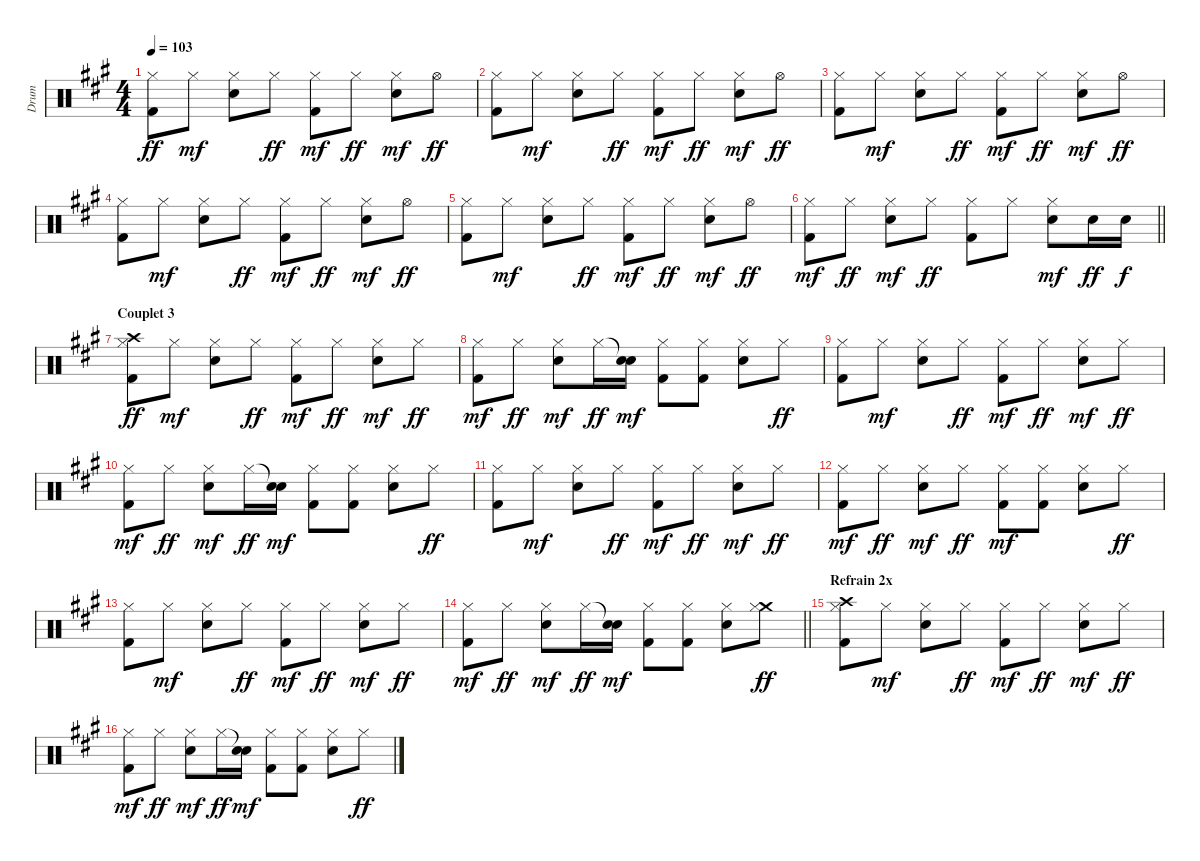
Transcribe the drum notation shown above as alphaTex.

\track ("Drum" "Drum") {instrument percussion}
\staff {score}
\articulation defaults
\ts (4 4)
\tempo 103
\clef neutral
\ks a
("Hi-Hat (closed)" "Kick (hit) 2").8{dy ff} "Hi-Hat (closed)".8{dy mf} ("Hi-Hat (closed)" "Electric Snare (hit)").8 "Hi-Hat (closed)".8{dy ff} ("Hi-Hat (closed)" "Kick (hit) 2").8{dy mf} "Hi-Hat (closed)".8{dy ff} ("Hi-Hat (closed)" "Electric Snare (hit)").8{dy mf} "Hi-Hat (open)".8{dy ff} |
("Hi-Hat (closed)" "Kick (hit) 2").8 "Hi-Hat (closed)".8{dy mf} ("Hi-Hat (closed)" "Electric Snare (hit)").8 "Hi-Hat (closed)".8{dy ff} ("Hi-Hat (closed)" "Kick (hit) 2").8{dy mf} "Hi-Hat (closed)".8{dy ff} ("Hi-Hat (closed)" "Electric Snare (hit)").8{dy mf} "Hi-Hat (open)".8{dy ff} |
("Hi-Hat (closed)" "Kick (hit) 2").8 "Hi-Hat (closed)".8{dy mf} ("Hi-Hat (closed)" "Electric Snare (hit)").8 "Hi-Hat (closed)".8{dy ff} ("Hi-Hat (closed)" "Kick (hit) 2").8{dy mf} "Hi-Hat (closed)".8{dy ff} ("Hi-Hat (closed)" "Electric Snare (hit)").8{dy mf} "Hi-Hat (open)".8{dy ff} |
("Hi-Hat (closed)" "Kick (hit) 2").8 "Hi-Hat (closed)".8{dy mf} ("Hi-Hat (closed)" "Electric Snare (hit)").8 "Hi-Hat (closed)".8{dy ff} ("Hi-Hat (closed)" "Kick (hit) 2").8{dy mf} "Hi-Hat (closed)".8{dy ff} ("Hi-Hat (closed)" "Electric Snare (hit)").8{dy mf} "Hi-Hat (open)".8{dy ff} |
("Hi-Hat (closed)" "Kick (hit) 2").8 "Hi-Hat (closed)".8{dy mf} ("Hi-Hat (closed)" "Electric Snare (hit)").8 "Hi-Hat (closed)".8{dy ff} ("Hi-Hat (closed)" "Kick (hit) 2").8{dy mf} "Hi-Hat (closed)".8{dy ff} ("Hi-Hat (closed)" "Electric Snare (hit)").8{dy mf} "Hi-Hat (open)".8{dy ff} |
\barLineRight lightlight
("Hi-Hat (closed)" "Kick (hit) 2").8{dy mf} "Hi-Hat (closed)".8{dy ff} ("Hi-Hat (closed)" "Electric Snare (hit)").8{dy mf} "Hi-Hat (closed)".8{dy ff} ("Hi-Hat (closed)" "Kick (hit) 2").8 "Hi-Hat (closed)".8 ("Hi-Hat (closed)" "Electric Snare (hit)").8{dy mf} "Snare (hit) 2".16{dy ff} "Snare (hit) 2".16{dy f} |
\section ("" "Couplet 3")
("Crash high (hit)" "Hi-Hat (closed)" "Kick (hit) 2").8{dy ff} "Hi-Hat (closed)".8{dy mf} ("Hi-Hat (closed)" "Electric Snare (hit)").8 "Hi-Hat (closed)".8{dy ff} ("Hi-Hat (closed)" "Kick (hit) 2").8{dy mf} "Hi-Hat (closed)".8{dy ff} ("Hi-Hat (closed)" "Electric Snare (hit)").8{dy mf} "Hi-Hat (closed)".8{dy ff} |
("Hi-Hat (closed)" "Kick (hit) 2").8{dy mf} "Hi-Hat (closed)".8{dy ff} ("Hi-Hat (closed)" "Electric Snare (hit)").8{dy mf} "Hi-Hat (closed)".16{dy ff} ("Snare (hit)"{t} "Electric Snare (hit)").16{dy mf} ("Hi-Hat (closed)" "Kick (hit) 2").8 ("Hi-Hat (closed)" "Kick (hit) 2").8 ("Hi-Hat (closed)" "Electric Snare (hit)").8 "Hi-Hat (closed)".8{dy ff} |
("Hi-Hat (closed)" "Kick (hit) 2").8 "Hi-Hat (closed)".8{dy mf} ("Hi-Hat (closed)" "Electric Snare (hit)").8 "Hi-Hat (closed)".8{dy ff} ("Hi-Hat (closed)" "Kick (hit) 2").8{dy mf} "Hi-Hat (closed)".8{dy ff} ("Hi-Hat (closed)" "Electric Snare (hit)").8{dy mf} "Hi-Hat (closed)".8{dy ff} |
("Hi-Hat (closed)" "Kick (hit) 2").8{dy mf} "Hi-Hat (closed)".8{dy ff} ("Hi-Hat (closed)" "Electric Snare (hit)").8{dy mf} "Hi-Hat (closed)".16{dy ff} ("Snare (hit)"{t} "Electric Snare (hit)").16{dy mf} ("Hi-Hat (closed)" "Kick (hit) 2").8 ("Hi-Hat (closed)" "Kick (hit) 2").8 ("Hi-Hat (closed)" "Electric Snare (hit)").8 "Hi-Hat (closed)".8{dy ff} |
("Hi-Hat (closed)" "Kick (hit) 2").8 "Hi-Hat (closed)".8{dy mf} ("Hi-Hat (closed)" "Electric Snare (hit)").8 "Hi-Hat (closed)".8{dy ff} ("Hi-Hat (closed)" "Kick (hit) 2").8{dy mf} "Hi-Hat (closed)".8{dy ff} ("Hi-Hat (closed)" "Electric Snare (hit)").8{dy mf} "Hi-Hat (closed)".8{dy ff} |
("Hi-Hat (closed)" "Kick (hit) 2").8{dy mf} "Hi-Hat (closed)".8{dy ff} ("Hi-Hat (closed)" "Electric Snare (hit)").8{dy mf} "Hi-Hat (closed)".8{dy ff} ("Hi-Hat (closed)" "Kick (hit) 2").8{dy mf} ("Hi-Hat (closed)" "Kick (hit) 2").8 ("Hi-Hat (closed)" "Electric Snare (hit)").8 "Hi-Hat (closed)".8{dy ff} |
("Hi-Hat (closed)" "Kick (hit) 2").8 "Hi-Hat (closed)".8{dy mf} ("Hi-Hat (closed)" "Electric Snare (hit)").8 "Hi-Hat (closed)".8{dy ff} ("Hi-Hat (closed)" "Kick (hit) 2").8{dy mf} "Hi-Hat (closed)".8{dy ff} ("Hi-Hat (closed)" "Electric Snare (hit)").8{dy mf} "Hi-Hat (closed)".8{dy ff} |
\barLineRight lightlight
("Hi-Hat (closed)" "Kick (hit) 2").8{dy mf} "Hi-Hat (closed)".8{dy ff} ("Hi-Hat (closed)" "Electric Snare (hit)").8{dy mf} "Hi-Hat (closed)".16{dy ff} ("Snare (hit)"{t} "Electric Snare (hit)").16{dy mf} ("Hi-Hat (closed)" "Kick (hit) 2").8 ("Hi-Hat (closed)" "Kick (hit) 2").8 ("Hi-Hat (closed)" "Electric Snare (hit)").8 ("Crash medium (hit)" "Hi-Hat (closed)").8{dy ff} |
\section ("" "Refrain 2x")
("Crash high (hit)" "Hi-Hat (closed)" "Kick (hit) 2").8 "Hi-Hat (closed)".8{dy mf} ("Hi-Hat (closed)" "Electric Snare (hit)").8 "Hi-Hat (closed)".8{dy ff} ("Hi-Hat (closed)" "Kick (hit) 2").8{dy mf} "Hi-Hat (closed)".8{dy ff} ("Hi-Hat (closed)" "Electric Snare (hit)").8{dy mf} "Hi-Hat (closed)".8{dy ff} |
("Hi-Hat (closed)" "Kick (hit) 2").8{dy mf} "Hi-Hat (closed)".8{dy ff} ("Hi-Hat (closed)" "Electric Snare (hit)").8{dy mf} "Hi-Hat (closed)".16{dy ff} ("Snare (hit)"{t} "Electric Snare (hit)").16{dy mf} ("Hi-Hat (closed)" "Kick (hit) 2").8 ("Hi-Hat (closed)" "Kick (hit) 2").8 ("Hi-Hat (closed)" "Electric Snare (hit)").8 "Hi-Hat (closed)".8{dy ff}
